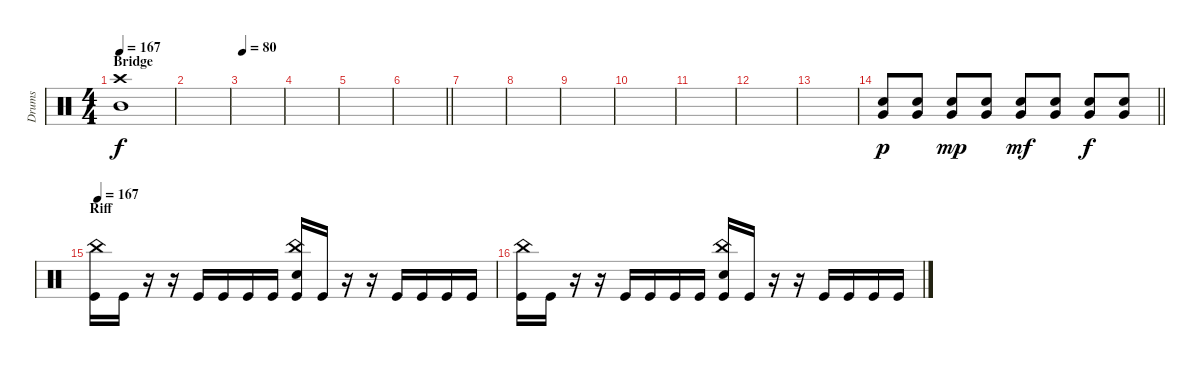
\track ("Drums" "Drums") {instrument percussion}
\staff {score}
\articulation defaults
\ts (4 4)
\section ("" "Bridge")
\tempo 167
\clef neutral
\ks c
("Crash high (hit)" "Mid Tom (hit)").1{dy f} |
|
\tempo 80
|
|
|
\barLineRight lightlight
|
\section ("" "")
|
|
|
|
|
|
|
\barLineRight lightlight
("Very Low Tom (hit)" "Snare (hit) 2").8{dy p} ("Very Low Tom (hit)" "Snare (hit) 2").8 ("Very Low Tom (hit)" "Snare (hit) 2").8{dy mp} ("Very Low Tom (hit)" "Snare (hit) 2").8 ("Very Low Tom (hit)" "Snare (hit) 2").8{dy mf} ("Very Low Tom (hit)" "Snare (hit) 2").8 ("Very Low Tom (hit)" "Snare (hit) 2").8{dy f} ("Very Low Tom (hit)" "Snare (hit) 2").8 |
\section ("" "Riff")
\tempo 167
("China (hit)" "Kick (hit)").16 "Kick (hit)".16 r.16 r.16 "Kick (hit)".16 "Kick (hit)".16 "Kick (hit)".16 "Kick (hit)".16 ("China (hit)" "Snare (hit) 2" "Kick (hit)").16 "Kick (hit)".16 r.16 r.16 "Kick (hit)".16 "Kick (hit)".16 "Kick (hit)".16 "Kick (hit)".16 |
("China (hit)" "Kick (hit)").16 "Kick (hit)".16 r.16 r.16 "Kick (hit)".16 "Kick (hit)".16 "Kick (hit)".16 "Kick (hit)".16 ("China (hit)" "Snare (hit) 2" "Kick (hit)").16 "Kick (hit)".16 r.16 r.16 "Kick (hit)".16 "Kick (hit)".16 "Kick (hit)".16 "Kick (hit)".16
